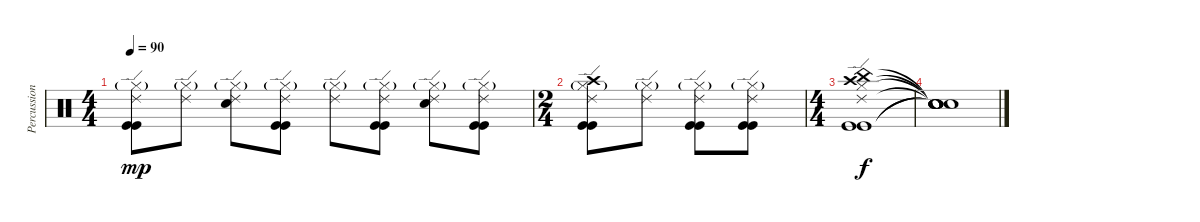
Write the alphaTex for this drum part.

\track ("Percussion" "Percussion") {instrument percussion}
\staff {score}
\articulation defaults
\ts (4 4)
\tempo 90
\clef neutral
\ks c
("Hi-Hat (closed)"{g} "Ride (edge) 2" "Kick (hit)" "Kick (hit)").8{dy mp} ("Hi-Hat (closed)"{g} "Ride (edge) 2").8 ("Hi-Hat (closed)"{g} "Ride (edge) 2" "Snare (hit) 2").8 ("Hi-Hat (closed)"{g} "Ride (edge) 2" "Kick (hit)" "Kick (hit)").8 ("Hi-Hat (closed)"{g} "Ride (edge) 2").8 ("Hi-Hat (closed)"{g} "Ride (edge) 2" "Kick (hit)" "Kick (hit)").8 ("Hi-Hat (closed)"{g} "Ride (edge) 2" "Snare (hit) 2").8 ("Hi-Hat (closed)"{g} "Ride (edge) 2" "Kick (hit)" "Kick (hit)").8 |
\ts (2 4)
("Hi-Hat (closed)"{g} "Ride (edge) 2" "Crash high (hit)" "Kick (hit)" "Kick (hit)").8 ("Hi-Hat (closed)"{g} "Ride (edge) 2").8 ("Hi-Hat (closed)"{g} "Ride (edge) 2" "Kick (hit)" "Kick (hit)").8 ("Hi-Hat (closed)"{g} "Ride (edge) 2" "Kick (hit)" "Kick (hit)").8 |
\ts (4 4)
("Hi-Hat (closed)" "Crash high (hit)" "China (hit)" "Ride (edge) 2" "Kick (hit)" "Kick (hit)").1{dy f} |
("Snare (hit)"{t} "Snare (hit)"{t} "Snare (hit)"{t} "Snare (hit)"{t} "Snare (hit)"{t} "Snare (hit)"{t}).1
